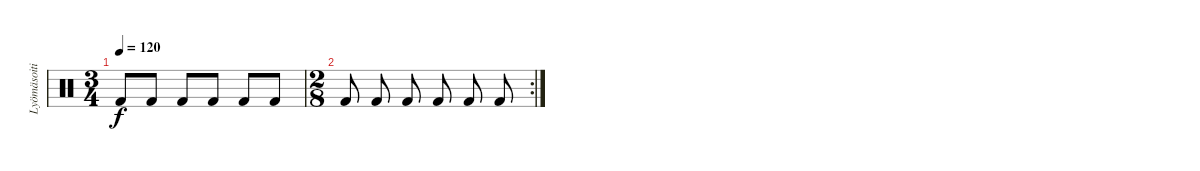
\track ("Lyömäsoitin" "Lyömäsoiti") {solo instrument percussion}
\staff {score}
\articulation defaults
\ts (3 4)
\tempo 120
\clef neutral
\ks c "Kick (hit) 2".8{dy f} "Kick (hit) 2".8 "Kick (hit) 2".8 "Kick (hit) 2".8 "Kick (hit) 2".8 "Kick (hit) 2".8
|
\rc 2
\ts (2 8)
"Kick (hit) 2".8 "Kick (hit) 2".8 "Kick (hit) 2".8 "Kick (hit) 2".8 "Kick (hit) 2".8 "Kick (hit) 2".8
